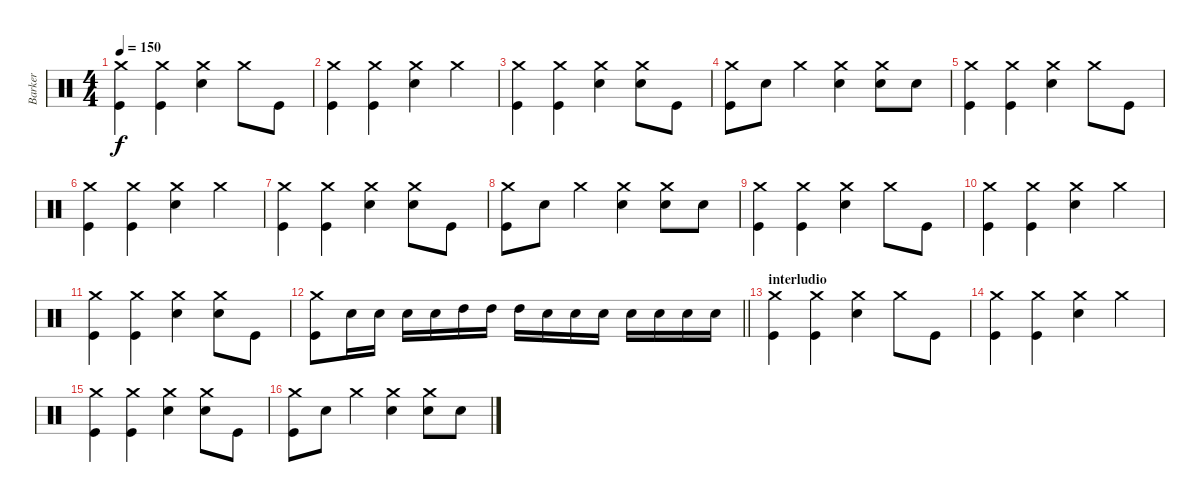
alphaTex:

\track ("Barker" "Barker") {instrument percussion}
\staff {score}
\articulation defaults
\ts (4 4)
\tempo 150
\clef neutral
\ks c
("Crash medium (hit)" "Kick (hit)").4{dy f} ("Crash medium (hit)" "Kick (hit)").4 ("Crash medium (hit)" "Electric Snare (hit)").4 "Crash medium (hit)".8 "Kick (hit)".8 |
("Crash medium (hit)" "Kick (hit)").4 ("Crash medium (hit)" "Kick (hit)").4 ("Crash medium (hit)" "Electric Snare (hit)").4 "Crash medium (hit)".4 |
("Crash medium (hit)" "Kick (hit)").4 ("Crash medium (hit)" "Kick (hit)").4 ("Crash medium (hit)" "Electric Snare (hit)").4 ("Crash medium (hit)" "Electric Snare (hit)").8 "Kick (hit)".8 |
("Crash medium (hit)" "Kick (hit)").8 "Electric Snare (hit)".8 "Crash medium (hit)".4 ("Crash medium (hit)" "Electric Snare (hit)").4 ("Electric Snare (hit)" "Crash medium (hit)").8 "Electric Snare (hit)".8 |
("Crash medium (hit)" "Kick (hit)").4 ("Crash medium (hit)" "Kick (hit)").4 ("Crash medium (hit)" "Electric Snare (hit)").4 "Crash medium (hit)".8 "Kick (hit)".8 |
("Crash medium (hit)" "Kick (hit)").4 ("Crash medium (hit)" "Kick (hit)").4 ("Crash medium (hit)" "Electric Snare (hit)").4 "Crash medium (hit)".4 |
("Crash medium (hit)" "Kick (hit)").4 ("Crash medium (hit)" "Kick (hit)").4 ("Crash medium (hit)" "Electric Snare (hit)").4 ("Crash medium (hit)" "Electric Snare (hit)").8 "Kick (hit)".8 |
("Crash medium (hit)" "Kick (hit)").8 "Electric Snare (hit)".8 "Crash medium (hit)".4 ("Crash medium (hit)" "Electric Snare (hit)").4 ("Electric Snare (hit)" "Crash medium (hit)").8 "Electric Snare (hit)".8 |
("Crash medium (hit)" "Kick (hit)").4 ("Crash medium (hit)" "Kick (hit)").4 ("Crash medium (hit)" "Electric Snare (hit)").4 "Crash medium (hit)".8 "Kick (hit)".8 |
("Crash medium (hit)" "Kick (hit)").4 ("Crash medium (hit)" "Kick (hit)").4 ("Crash medium (hit)" "Electric Snare (hit)").4 "Crash medium (hit)".4 |
("Crash medium (hit)" "Kick (hit)").4 ("Crash medium (hit)" "Kick (hit)").4 ("Crash medium (hit)" "Electric Snare (hit)").4 ("Crash medium (hit)" "Electric Snare (hit)").8 "Kick (hit)".8 |
\barLineRight lightlight
("Crash medium (hit)" "Kick (hit)").8 "Electric Snare (hit)".16 "Electric Snare (hit)".16 "Electric Snare (hit)".16 "Electric Snare (hit)".16 "High Tom (hit)".16 "High Tom (hit)".16 "High Tom (hit)".16 "Electric Snare (hit)".16 "Electric Snare (hit)".16 "Electric Snare (hit)".16 "Electric Snare (hit)".16 "Electric Snare (hit)".16 "Electric Snare (hit)".16 "Electric Snare (hit)".16 |
\section ("" "interludio")
("Crash medium (hit)" "Kick (hit)").4 ("Crash medium (hit)" "Kick (hit)").4 ("Crash medium (hit)" "Electric Snare (hit)").4 "Crash medium (hit)".8 "Kick (hit)".8 |
("Crash medium (hit)" "Kick (hit)").4 ("Crash medium (hit)" "Kick (hit)").4 ("Crash medium (hit)" "Electric Snare (hit)").4 "Crash medium (hit)".4 |
("Crash medium (hit)" "Kick (hit)").4 ("Crash medium (hit)" "Kick (hit)").4 ("Crash medium (hit)" "Electric Snare (hit)").4 ("Crash medium (hit)" "Electric Snare (hit)").8 "Kick (hit)".8 |
("Crash medium (hit)" "Kick (hit)").8 "Electric Snare (hit)".8 "Crash medium (hit)".4 ("Crash medium (hit)" "Electric Snare (hit)").4 ("Electric Snare (hit)" "Crash medium (hit)").8 "Electric Snare (hit)".8
